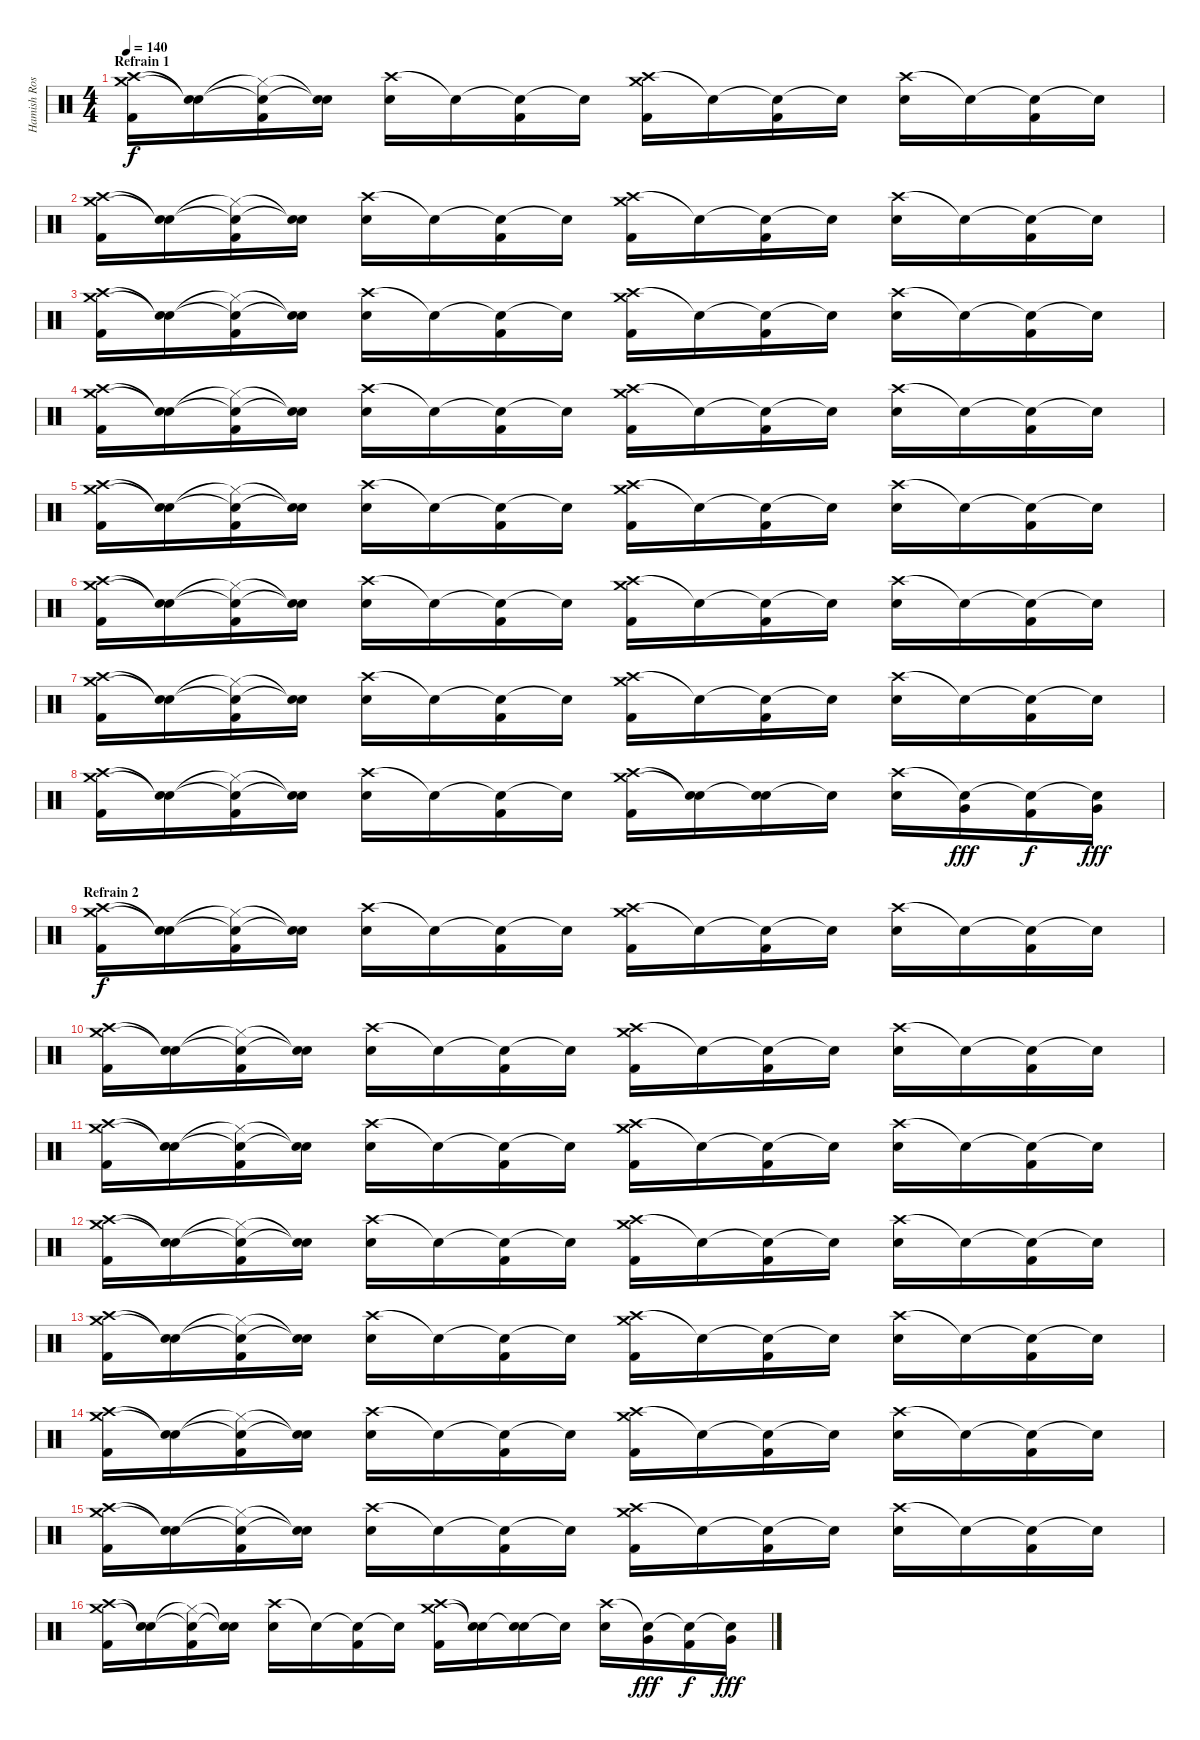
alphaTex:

\track ("Hamish Rosser" "Hamish Ros") {instrument percussion}
\staff {score}
\articulation defaults
\ts (4 4)
\section ("" "Refrain 1")
\tempo 140
\clef neutral
\ks c
("Crash high (hit)" "Crash medium (hit)" "Kick (hit) 2").16{dy f} ("Snare (hit)"{t} "Snare (hit)"{t}).16 ("Snare (hit)"{t} "Hi-Hat (closed)"{t} "Kick (hit) 2").16 ("Snare (hit)"{t} "Snare (hit)"{t}).16 ("Crash high (hit)" "Electric Snare (hit)").16 "Snare (hit)"{t}.16 ("Snare (hit)"{t} "Kick (hit) 2").16 "Snare (hit)"{t}.16 ("Crash high (hit)" "Crash medium (hit)" "Kick (hit) 2").16 "Snare (hit)"{t}.16 ("Snare (hit)"{t} "Kick (hit) 2").16 "Snare (hit)"{t}.16 ("Crash high (hit)" "Electric Snare (hit)").16 "Snare (hit)"{t}.16 ("Snare (hit)"{t} "Kick (hit) 2").16 "Snare (hit)"{t}.16 |
("Crash high (hit)" "Crash medium (hit)" "Kick (hit) 2").16 ("Snare (hit)"{t} "Snare (hit)"{t}).16 ("Snare (hit)"{t} "Hi-Hat (closed)"{t} "Kick (hit) 2").16 ("Snare (hit)"{t} "Snare (hit)"{t}).16 ("Crash high (hit)" "Electric Snare (hit)").16 "Snare (hit)"{t}.16 ("Snare (hit)"{t} "Kick (hit) 2").16 "Snare (hit)"{t}.16 ("Crash high (hit)" "Crash medium (hit)" "Kick (hit) 2").16 "Snare (hit)"{t}.16 ("Snare (hit)"{t} "Kick (hit) 2").16 "Snare (hit)"{t}.16 ("Crash high (hit)" "Electric Snare (hit)").16 "Snare (hit)"{t}.16 ("Snare (hit)"{t} "Kick (hit) 2").16 "Snare (hit)"{t}.16 |
("Crash high (hit)" "Crash medium (hit)" "Kick (hit) 2").16 ("Snare (hit)"{t} "Snare (hit)"{t}).16 ("Snare (hit)"{t} "Hi-Hat (closed)"{t} "Kick (hit) 2").16 ("Snare (hit)"{t} "Snare (hit)"{t}).16 ("Crash high (hit)" "Electric Snare (hit)").16 "Snare (hit)"{t}.16 ("Snare (hit)"{t} "Kick (hit) 2").16 "Snare (hit)"{t}.16 ("Crash high (hit)" "Crash medium (hit)" "Kick (hit) 2").16 "Snare (hit)"{t}.16 ("Snare (hit)"{t} "Kick (hit) 2").16 "Snare (hit)"{t}.16 ("Crash high (hit)" "Electric Snare (hit)").16 "Snare (hit)"{t}.16 ("Snare (hit)"{t} "Kick (hit) 2").16 "Snare (hit)"{t}.16 |
("Crash high (hit)" "Crash medium (hit)" "Kick (hit) 2").16 ("Snare (hit)"{t} "Snare (hit)"{t}).16 ("Snare (hit)"{t} "Hi-Hat (closed)"{t} "Kick (hit) 2").16 ("Snare (hit)"{t} "Snare (hit)"{t}).16 ("Crash high (hit)" "Electric Snare (hit)").16 "Snare (hit)"{t}.16 ("Snare (hit)"{t} "Kick (hit) 2").16 "Snare (hit)"{t}.16 ("Crash high (hit)" "Crash medium (hit)" "Kick (hit) 2").16 "Snare (hit)"{t}.16 ("Snare (hit)"{t} "Kick (hit) 2").16 "Snare (hit)"{t}.16 ("Crash high (hit)" "Electric Snare (hit)").16 "Snare (hit)"{t}.16 ("Snare (hit)"{t} "Kick (hit) 2").16 "Snare (hit)"{t}.16 |
("Crash high (hit)" "Crash medium (hit)" "Kick (hit) 2").16 ("Snare (hit)"{t} "Snare (hit)"{t}).16 ("Snare (hit)"{t} "Hi-Hat (closed)"{t} "Kick (hit) 2").16 ("Snare (hit)"{t} "Snare (hit)"{t}).16 ("Crash high (hit)" "Electric Snare (hit)").16 "Snare (hit)"{t}.16 ("Snare (hit)"{t} "Kick (hit) 2").16 "Snare (hit)"{t}.16 ("Crash high (hit)" "Crash medium (hit)" "Kick (hit) 2").16 "Snare (hit)"{t}.16 ("Snare (hit)"{t} "Kick (hit) 2").16 "Snare (hit)"{t}.16 ("Crash high (hit)" "Electric Snare (hit)").16 "Snare (hit)"{t}.16 ("Snare (hit)"{t} "Kick (hit) 2").16 "Snare (hit)"{t}.16 |
("Crash high (hit)" "Crash medium (hit)" "Kick (hit) 2").16 ("Snare (hit)"{t} "Snare (hit)"{t}).16 ("Snare (hit)"{t} "Hi-Hat (closed)"{t} "Kick (hit) 2").16 ("Snare (hit)"{t} "Snare (hit)"{t}).16 ("Crash high (hit)" "Electric Snare (hit)").16 "Snare (hit)"{t}.16 ("Snare (hit)"{t} "Kick (hit) 2").16 "Snare (hit)"{t}.16 ("Crash high (hit)" "Crash medium (hit)" "Kick (hit) 2").16 "Snare (hit)"{t}.16 ("Snare (hit)"{t} "Kick (hit) 2").16 "Snare (hit)"{t}.16 ("Crash high (hit)" "Electric Snare (hit)").16 "Snare (hit)"{t}.16 ("Snare (hit)"{t} "Kick (hit) 2").16 "Snare (hit)"{t}.16 |
("Crash high (hit)" "Crash medium (hit)" "Kick (hit) 2").16 ("Snare (hit)"{t} "Snare (hit)"{t}).16 ("Snare (hit)"{t} "Hi-Hat (closed)"{t} "Kick (hit) 2").16 ("Snare (hit)"{t} "Snare (hit)"{t}).16 ("Crash high (hit)" "Electric Snare (hit)").16 "Snare (hit)"{t}.16 ("Snare (hit)"{t} "Kick (hit) 2").16 "Snare (hit)"{t}.16 ("Crash high (hit)" "Crash medium (hit)" "Kick (hit) 2").16 "Snare (hit)"{t}.16 ("Snare (hit)"{t} "Kick (hit) 2").16 "Snare (hit)"{t}.16 ("Crash high (hit)" "Electric Snare (hit)").16 "Snare (hit)"{t}.16 ("Snare (hit)"{t} "Kick (hit) 2").16 "Snare (hit)"{t}.16 |
("Crash high (hit)" "Crash medium (hit)" "Kick (hit) 2").16 ("Snare (hit)"{t} "Snare (hit)"{t}).16 ("Snare (hit)"{t} "Hi-Hat (closed)"{t} "Kick (hit) 2").16 ("Snare (hit)"{t} "Snare (hit)"{t}).16 ("Crash high (hit)" "Electric Snare (hit)").16 "Snare (hit)"{t}.16 ("Snare (hit)"{t} "Kick (hit) 2").16 "Snare (hit)"{t}.16 ("Crash high (hit)" "Crash medium (hit)" "Kick (hit) 2").16 ("Snare (hit)"{t} "Snare (hit)"{t}).16 ("Snare (hit)"{t} "Electric Snare (hit)").16 "Snare (hit)"{t}.16 ("Crash high (hit)" "Electric Snare (hit)").16 ("Snare (hit)"{t} "Very Low Tom (hit)").16{dy fff} ("Snare (hit)"{t} "Kick (hit) 2").16{dy f} ("Snare (hit)"{t} "Very Low Tom (hit)").16{dy fff} |
\section ("" "Refrain 2")
("Crash high (hit)" "Crash medium (hit)" "Kick (hit) 2").16{dy f} ("Snare (hit)"{t} "Snare (hit)"{t}).16 ("Snare (hit)"{t} "Hi-Hat (closed)"{t} "Kick (hit) 2").16 ("Snare (hit)"{t} "Snare (hit)"{t}).16 ("Crash high (hit)" "Electric Snare (hit)").16 "Snare (hit)"{t}.16 ("Snare (hit)"{t} "Kick (hit) 2").16 "Snare (hit)"{t}.16 ("Crash high (hit)" "Crash medium (hit)" "Kick (hit) 2").16 "Snare (hit)"{t}.16 ("Snare (hit)"{t} "Kick (hit) 2").16 "Snare (hit)"{t}.16 ("Crash high (hit)" "Electric Snare (hit)").16 "Snare (hit)"{t}.16 ("Snare (hit)"{t} "Kick (hit) 2").16 "Snare (hit)"{t}.16 |
("Crash high (hit)" "Crash medium (hit)" "Kick (hit) 2").16 ("Snare (hit)"{t} "Snare (hit)"{t}).16 ("Snare (hit)"{t} "Hi-Hat (closed)"{t} "Kick (hit) 2").16 ("Snare (hit)"{t} "Snare (hit)"{t}).16 ("Crash high (hit)" "Electric Snare (hit)").16 "Snare (hit)"{t}.16 ("Snare (hit)"{t} "Kick (hit) 2").16 "Snare (hit)"{t}.16 ("Crash high (hit)" "Crash medium (hit)" "Kick (hit) 2").16 "Snare (hit)"{t}.16 ("Snare (hit)"{t} "Kick (hit) 2").16 "Snare (hit)"{t}.16 ("Crash high (hit)" "Electric Snare (hit)").16 "Snare (hit)"{t}.16 ("Snare (hit)"{t} "Kick (hit) 2").16 "Snare (hit)"{t}.16 |
("Crash high (hit)" "Crash medium (hit)" "Kick (hit) 2").16 ("Snare (hit)"{t} "Snare (hit)"{t}).16 ("Snare (hit)"{t} "Hi-Hat (closed)"{t} "Kick (hit) 2").16 ("Snare (hit)"{t} "Snare (hit)"{t}).16 ("Crash high (hit)" "Electric Snare (hit)").16 "Snare (hit)"{t}.16 ("Snare (hit)"{t} "Kick (hit) 2").16 "Snare (hit)"{t}.16 ("Crash high (hit)" "Crash medium (hit)" "Kick (hit) 2").16 "Snare (hit)"{t}.16 ("Snare (hit)"{t} "Kick (hit) 2").16 "Snare (hit)"{t}.16 ("Crash high (hit)" "Electric Snare (hit)").16 "Snare (hit)"{t}.16 ("Snare (hit)"{t} "Kick (hit) 2").16 "Snare (hit)"{t}.16 |
("Crash high (hit)" "Crash medium (hit)" "Kick (hit) 2").16 ("Snare (hit)"{t} "Snare (hit)"{t}).16 ("Snare (hit)"{t} "Hi-Hat (closed)"{t} "Kick (hit) 2").16 ("Snare (hit)"{t} "Snare (hit)"{t}).16 ("Crash high (hit)" "Electric Snare (hit)").16 "Snare (hit)"{t}.16 ("Snare (hit)"{t} "Kick (hit) 2").16 "Snare (hit)"{t}.16 ("Crash high (hit)" "Crash medium (hit)" "Kick (hit) 2").16 "Snare (hit)"{t}.16 ("Snare (hit)"{t} "Kick (hit) 2").16 "Snare (hit)"{t}.16 ("Crash high (hit)" "Electric Snare (hit)").16 "Snare (hit)"{t}.16 ("Snare (hit)"{t} "Kick (hit) 2").16 "Snare (hit)"{t}.16 |
("Crash high (hit)" "Crash medium (hit)" "Kick (hit) 2").16 ("Snare (hit)"{t} "Snare (hit)"{t}).16 ("Snare (hit)"{t} "Hi-Hat (closed)"{t} "Kick (hit) 2").16 ("Snare (hit)"{t} "Snare (hit)"{t}).16 ("Crash high (hit)" "Electric Snare (hit)").16 "Snare (hit)"{t}.16 ("Snare (hit)"{t} "Kick (hit) 2").16 "Snare (hit)"{t}.16 ("Crash high (hit)" "Crash medium (hit)" "Kick (hit) 2").16 "Snare (hit)"{t}.16 ("Snare (hit)"{t} "Kick (hit) 2").16 "Snare (hit)"{t}.16 ("Crash high (hit)" "Electric Snare (hit)").16 "Snare (hit)"{t}.16 ("Snare (hit)"{t} "Kick (hit) 2").16 "Snare (hit)"{t}.16 |
("Crash high (hit)" "Crash medium (hit)" "Kick (hit) 2").16 ("Snare (hit)"{t} "Snare (hit)"{t}).16 ("Snare (hit)"{t} "Hi-Hat (closed)"{t} "Kick (hit) 2").16 ("Snare (hit)"{t} "Snare (hit)"{t}).16 ("Crash high (hit)" "Electric Snare (hit)").16 "Snare (hit)"{t}.16 ("Snare (hit)"{t} "Kick (hit) 2").16 "Snare (hit)"{t}.16 ("Crash high (hit)" "Crash medium (hit)" "Kick (hit) 2").16 "Snare (hit)"{t}.16 ("Snare (hit)"{t} "Kick (hit) 2").16 "Snare (hit)"{t}.16 ("Crash high (hit)" "Electric Snare (hit)").16 "Snare (hit)"{t}.16 ("Snare (hit)"{t} "Kick (hit) 2").16 "Snare (hit)"{t}.16 |
("Crash high (hit)" "Crash medium (hit)" "Kick (hit) 2").16 ("Snare (hit)"{t} "Snare (hit)"{t}).16 ("Snare (hit)"{t} "Hi-Hat (closed)"{t} "Kick (hit) 2").16 ("Snare (hit)"{t} "Snare (hit)"{t}).16 ("Crash high (hit)" "Electric Snare (hit)").16 "Snare (hit)"{t}.16 ("Snare (hit)"{t} "Kick (hit) 2").16 "Snare (hit)"{t}.16 ("Crash high (hit)" "Crash medium (hit)" "Kick (hit) 2").16 "Snare (hit)"{t}.16 ("Snare (hit)"{t} "Kick (hit) 2").16 "Snare (hit)"{t}.16 ("Crash high (hit)" "Electric Snare (hit)").16 "Snare (hit)"{t}.16 ("Snare (hit)"{t} "Kick (hit) 2").16 "Snare (hit)"{t}.16 |
("Crash high (hit)" "Crash medium (hit)" "Kick (hit) 2").16 ("Snare (hit)"{t} "Snare (hit)"{t}).16 ("Snare (hit)"{t} "Hi-Hat (closed)"{t} "Kick (hit) 2").16 ("Snare (hit)"{t} "Snare (hit)"{t}).16 ("Crash high (hit)" "Electric Snare (hit)").16 "Snare (hit)"{t}.16 ("Snare (hit)"{t} "Kick (hit) 2").16 "Snare (hit)"{t}.16 ("Crash high (hit)" "Crash medium (hit)" "Kick (hit) 2").16 ("Snare (hit)"{t} "Snare (hit)"{t}).16 ("Snare (hit)"{t} "Electric Snare (hit)").16 "Snare (hit)"{t}.16 ("Crash high (hit)" "Electric Snare (hit)").16 ("Snare (hit)"{t} "Very Low Tom (hit)").16{dy fff} ("Snare (hit)"{t} "Kick (hit) 2").16{dy f} ("Snare (hit)"{t} "Very Low Tom (hit)").16{dy fff}
